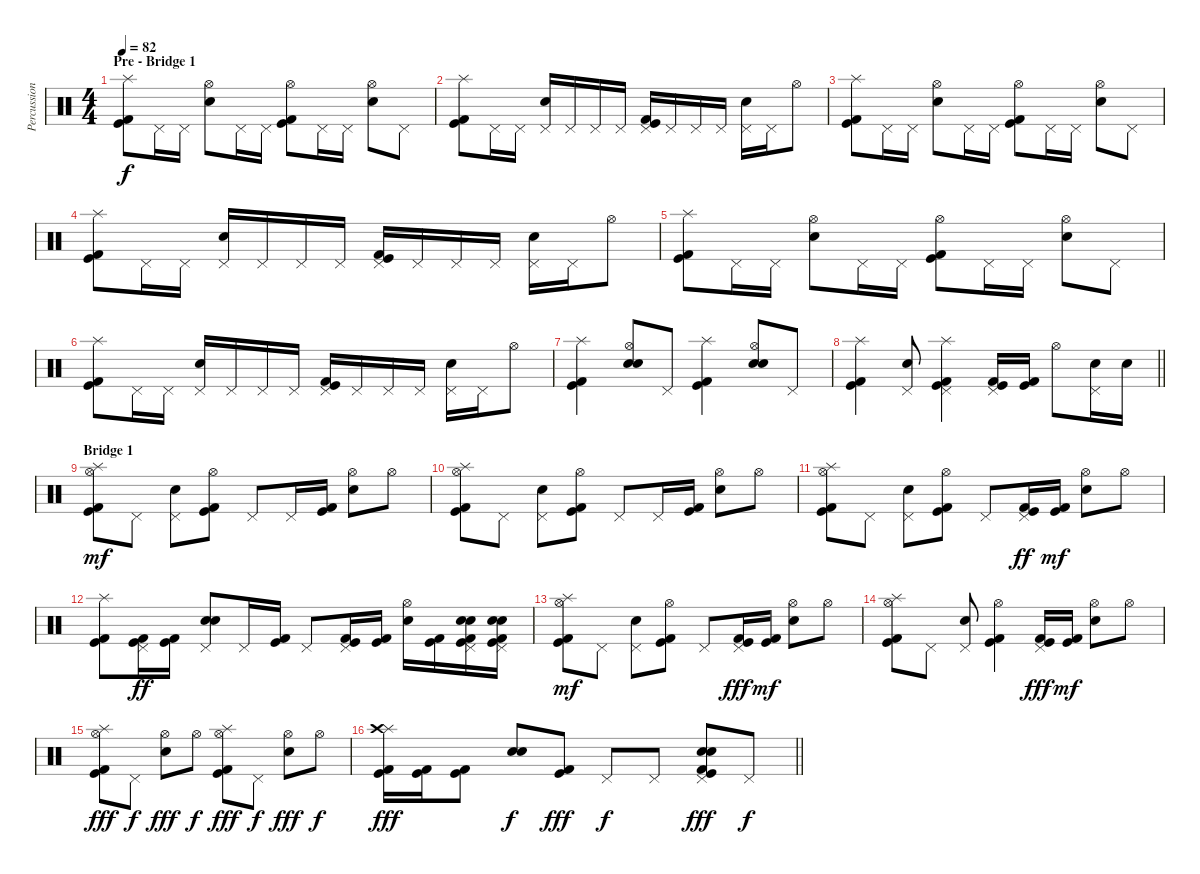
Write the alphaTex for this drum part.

\track ("Percussion" "Percussion") {instrument percussion}
\staff {score}
\articulation defaults
\ts (4 4)
\section ("" "Pre - Bridge 1")
\tempo 82
\clef neutral
\ks c
("Splash (hit)" "Kick (hit)" "Kick (hit) 2").8{dy f} "Pedal Hi-Hat (hit)".16 "Pedal Hi-Hat (hit)".16 ("Snare (hit) 2" "Hi-Hat (open)").8 "Pedal Hi-Hat (hit)".16 "Pedal Hi-Hat (hit)".16 ("Hi-Hat (open)" "Kick (hit)" "Kick (hit) 2").8 "Pedal Hi-Hat (hit)".16 "Pedal Hi-Hat (hit)".16 ("Snare (hit) 2" "Hi-Hat (open)").8 "Pedal Hi-Hat (hit)".8 |
("Splash (hit)" "Kick (hit)" "Kick (hit) 2").8 "Pedal Hi-Hat (hit)".16 "Pedal Hi-Hat (hit)".16 ("Snare (hit) 2" "Pedal Hi-Hat (hit)").16 "Pedal Hi-Hat (hit)".16 "Pedal Hi-Hat (hit)".16 "Pedal Hi-Hat (hit)".16 ("Pedal Hi-Hat (hit)" "Kick (hit)" "Kick (hit) 2").16 "Pedal Hi-Hat (hit)".16 "Pedal Hi-Hat (hit)".16 "Pedal Hi-Hat (hit)".16 ("Snare (hit) 2" "Pedal Hi-Hat (hit)").16 "Pedal Hi-Hat (hit)".16 "Hi-Hat (open)".8 |
("Splash (hit)" "Kick (hit)" "Kick (hit) 2").8 "Pedal Hi-Hat (hit)".16 "Pedal Hi-Hat (hit)".16 ("Snare (hit) 2" "Hi-Hat (open)").8 "Pedal Hi-Hat (hit)".16 "Pedal Hi-Hat (hit)".16 ("Hi-Hat (open)" "Kick (hit)" "Kick (hit) 2").8 "Pedal Hi-Hat (hit)".16 "Pedal Hi-Hat (hit)".16 ("Snare (hit) 2" "Hi-Hat (open)").8 "Pedal Hi-Hat (hit)".8 |
("Splash (hit)" "Kick (hit)" "Kick (hit) 2").8 "Pedal Hi-Hat (hit)".16 "Pedal Hi-Hat (hit)".16 ("Snare (hit) 2" "Pedal Hi-Hat (hit)").16 "Pedal Hi-Hat (hit)".16 "Pedal Hi-Hat (hit)".16 "Pedal Hi-Hat (hit)".16 ("Pedal Hi-Hat (hit)" "Kick (hit)" "Kick (hit) 2").16 "Pedal Hi-Hat (hit)".16 "Pedal Hi-Hat (hit)".16 "Pedal Hi-Hat (hit)".16 ("Snare (hit) 2" "Pedal Hi-Hat (hit)").16 "Pedal Hi-Hat (hit)".16 "Hi-Hat (open)".8 |
("Splash (hit)" "Kick (hit)" "Kick (hit) 2").8 "Pedal Hi-Hat (hit)".16 "Pedal Hi-Hat (hit)".16 ("Snare (hit) 2" "Hi-Hat (open)").8 "Pedal Hi-Hat (hit)".16 "Pedal Hi-Hat (hit)".16 ("Hi-Hat (open)" "Kick (hit)" "Kick (hit) 2").8 "Pedal Hi-Hat (hit)".16 "Pedal Hi-Hat (hit)".16 ("Snare (hit) 2" "Hi-Hat (open)").8 "Pedal Hi-Hat (hit)".8 |
("Splash (hit)" "Kick (hit)" "Kick (hit) 2").8 "Pedal Hi-Hat (hit)".16 "Pedal Hi-Hat (hit)".16 ("Snare (hit) 2" "Pedal Hi-Hat (hit)").16 "Pedal Hi-Hat (hit)".16 "Pedal Hi-Hat (hit)".16 "Pedal Hi-Hat (hit)".16 ("Pedal Hi-Hat (hit)" "Kick (hit)" "Kick (hit) 2").16 "Pedal Hi-Hat (hit)".16 "Pedal Hi-Hat (hit)".16 "Pedal Hi-Hat (hit)".16 ("Snare (hit) 2" "Pedal Hi-Hat (hit)").16 "Pedal Hi-Hat (hit)".16 "Hi-Hat (open)".8 |
("Splash (hit)" "Kick (hit)" "Kick (hit) 2").4 ("Snare (hit) 2" "Electric Snare (hit)" "Hi-Hat (open)").8 "Pedal Hi-Hat (hit)".8 ("Splash (hit)" "Kick (hit)" "Kick (hit) 2").4 ("Snare (hit) 2" "Electric Snare (hit)" "Hi-Hat (open)").8 "Pedal Hi-Hat (hit)".8 |
\barLineRight lightlight
("Splash (hit)" "Kick (hit)" "Kick (hit) 2").4 ("Electric Snare (hit)" "Pedal Hi-Hat (hit)").8 ("Splash (hit)" "Pedal Hi-Hat (hit)" "Kick (hit)" "Kick (hit) 2").4 ("Pedal Hi-Hat (hit)" "Kick (hit)" "Kick (hit) 2").16 ("Kick (hit)" "Kick (hit) 2").16 "Hi-Hat (open)".8 ("Snare (hit) 2" "Pedal Hi-Hat (hit)").16 "Snare (hit) 2".16 |
\section ("" "Bridge 1")
("Splash (hit)" "Hi-Hat (open)" "Kick (hit)" "Kick (hit) 2").8{dy mf} "Pedal Hi-Hat (hit)".8 ("Snare (hit) 2" "Pedal Hi-Hat (hit)").8 ("Hi-Hat (open)" "Kick (hit)" "Kick (hit) 2").8 "Pedal Hi-Hat (hit)".8 "Pedal Hi-Hat (hit)".16 ("Kick (hit)" "Kick (hit) 2").16 ("Snare (hit) 2" "Hi-Hat (open)").8 "Hi-Hat (open)".8 |
("Splash (hit)" "Hi-Hat (open)" "Kick (hit)" "Kick (hit) 2").8 "Pedal Hi-Hat (hit)".8 ("Snare (hit) 2" "Pedal Hi-Hat (hit)").8 ("Hi-Hat (open)" "Kick (hit)" "Kick (hit) 2").8 "Pedal Hi-Hat (hit)".8 "Pedal Hi-Hat (hit)".16 ("Kick (hit)" "Kick (hit) 2").16 ("Snare (hit) 2" "Hi-Hat (open)").8 "Hi-Hat (open)".8 |
("Splash (hit)" "Hi-Hat (open)" "Kick (hit)" "Kick (hit) 2").8 "Pedal Hi-Hat (hit)".8 ("Snare (hit) 2" "Pedal Hi-Hat (hit)").8 ("Hi-Hat (open)" "Kick (hit)" "Kick (hit) 2").8 "Pedal Hi-Hat (hit)".8 ("Pedal Hi-Hat (hit)" "Kick (hit)" "Kick (hit) 2").16{dy ff} ("Kick (hit)" "Kick (hit) 2").16{dy mf} ("Snare (hit) 2" "Hi-Hat (open)").8 "Hi-Hat (open)".8 |
("Splash (hit)" "Kick (hit)" "Kick (hit) 2").8 ("Pedal Hi-Hat (hit)" "Kick (hit)" "Kick (hit) 2").16{dy ff} ("Kick (hit)" "Kick (hit) 2").16 ("Snare (hit) 2" "Electric Snare (hit)" "Pedal Hi-Hat (hit)").8 "Pedal Hi-Hat (hit)".16 ("Kick (hit)" "Kick (hit) 2").16 "Pedal Hi-Hat (hit)".8 ("Pedal Hi-Hat (hit)" "Kick (hit)" "Kick (hit) 2").16 ("Kick (hit)" "Kick (hit) 2").16 ("Snare (hit) 2" "Hi-Hat (open)").16 ("Kick (hit)" "Kick (hit) 2").16 ("Snare (hit) 2" "Electric Snare (hit)" "Pedal Hi-Hat (hit)" "Kick (hit)" "Kick (hit) 2").16 ("Snare (hit) 2" "Electric Snare (hit)" "Pedal Hi-Hat (hit)" "Kick (hit)" "Kick (hit) 2").16 |
("Splash (hit)" "Hi-Hat (open)" "Kick (hit)" "Kick (hit) 2").8{dy mf} "Pedal Hi-Hat (hit)".8 ("Snare (hit) 2" "Pedal Hi-Hat (hit)").8 ("Hi-Hat (open)" "Kick (hit)" "Kick (hit) 2").8 "Pedal Hi-Hat (hit)".8 ("Pedal Hi-Hat (hit)" "Kick (hit)" "Kick (hit) 2").16{dy fff} ("Kick (hit)" "Kick (hit) 2").16{dy mf} ("Snare (hit) 2" "Hi-Hat (open)").8 "Hi-Hat (open)".8 |
("Splash (hit)" "Hi-Hat (open)" "Kick (hit)" "Kick (hit) 2").8 "Pedal Hi-Hat (hit)".8 ("Snare (hit) 2" "Pedal Hi-Hat (hit)").8 ("Hi-Hat (open)" "Kick (hit)" "Kick (hit) 2").4 ("Pedal Hi-Hat (hit)" "Kick (hit)" "Kick (hit) 2").16{dy fff} ("Kick (hit)" "Kick (hit) 2").16{dy mf} ("Snare (hit) 2" "Hi-Hat (open)").8 "Hi-Hat (open)".8 |
("Splash (hit)" "Hi-Hat (open)" "Kick (hit)" "Kick (hit) 2").8{dy fff} "Pedal Hi-Hat (hit)".8{dy f} ("Snare (hit) 2" "Hi-Hat (open)").8{dy fff} "Hi-Hat (open)".8{dy f} ("Splash (hit)" "Hi-Hat (open)" "Kick (hit)" "Kick (hit) 2").8{dy fff} "Pedal Hi-Hat (hit)".8{dy f} ("Snare (hit) 2" "Hi-Hat (open)").8{dy fff} "Hi-Hat (open)".8{dy f} |
\barLineRight lightlight
("Splash (hit)" "Crash high (hit)" "Kick (hit)" "Kick (hit) 2").16{dy fff} ("Kick (hit)" "Kick (hit) 2").16 ("Kick (hit)" "Kick (hit) 2").8 ("Snare (hit) 2" "Electric Snare (hit)").8{dy f} ("Kick (hit)" "Kick (hit) 2").8{dy fff} "Pedal Hi-Hat (hit)".8{dy f} "Pedal Hi-Hat (hit)".8 ("Electric Snare (hit)" "Snare (hit) 2" "Pedal Hi-Hat (hit)" "Kick (hit)" "Kick (hit) 2").8{dy fff} "Pedal Hi-Hat (hit)".8{dy f}
